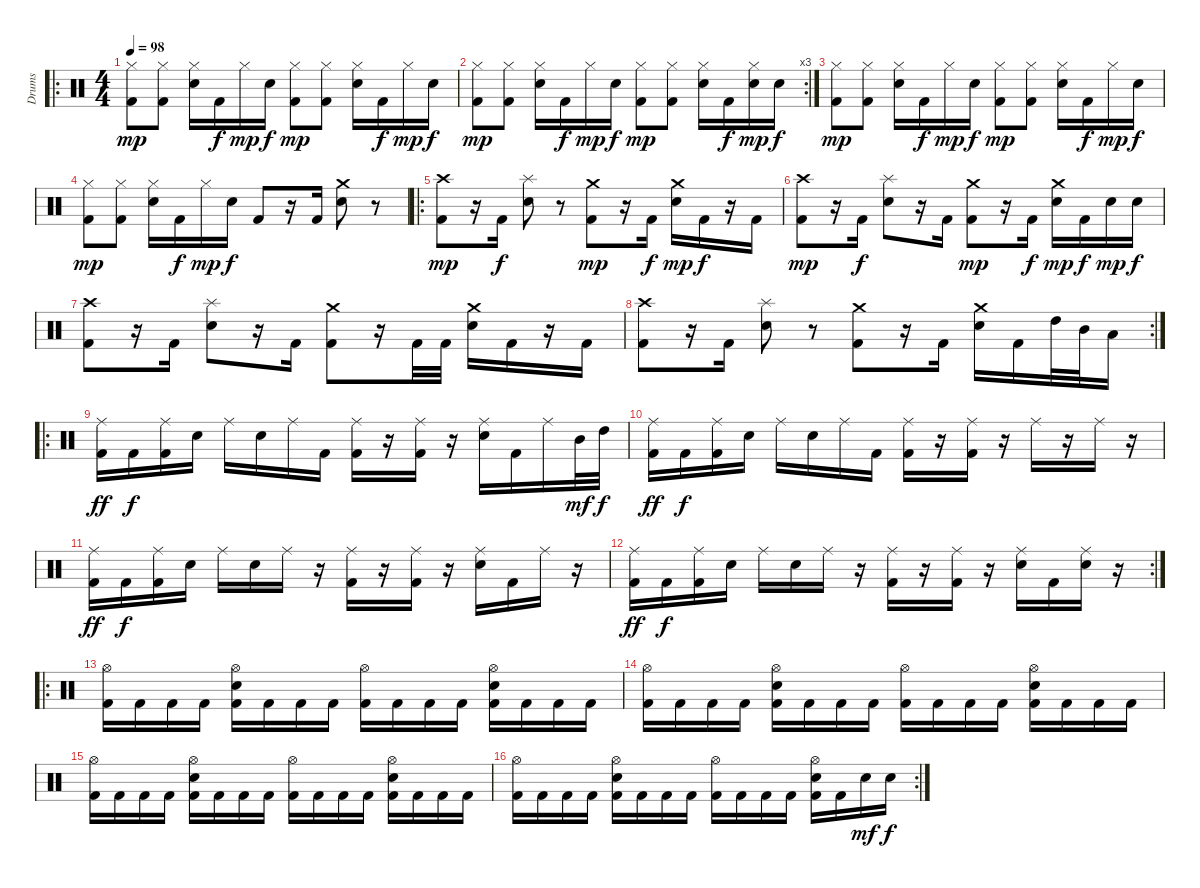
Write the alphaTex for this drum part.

\track ("Drums" "Drums") {instrument percussion}
\staff {score}
\articulation defaults
\ro
\ts (4 4)
\tempo 98
\clef neutral
\ks c
("Hi-Hat (closed)" "Kick (hit) 2").8{dy mp} ("Hi-Hat (closed)" "Kick (hit) 2").8 ("Hi-Hat (closed)" "Snare (hit) 2").16 "Kick (hit) 2".16{dy f} "Hi-Hat (closed)".16{dy mp} "Snare (hit) 2".16{dy f} ("Hi-Hat (closed)" "Kick (hit) 2").8{dy mp} ("Hi-Hat (closed)" "Kick (hit) 2").8 ("Hi-Hat (closed)" "Snare (hit) 2").16 "Kick (hit) 2".16{dy f} "Hi-Hat (closed)".16{dy mp} "Snare (hit) 2".16{dy f} |
\rc 3
("Hi-Hat (closed)" "Kick (hit) 2").8{dy mp} ("Hi-Hat (closed)" "Kick (hit) 2").8 ("Hi-Hat (closed)" "Snare (hit) 2").16 "Kick (hit) 2".16{dy f} "Hi-Hat (closed)".16{dy mp} "Snare (hit) 2".16{dy f} ("Hi-Hat (closed)" "Kick (hit) 2").8{dy mp} ("Hi-Hat (closed)" "Kick (hit) 2").8 ("Hi-Hat (closed)" "Snare (hit) 2").16 "Kick (hit) 2".16{dy f} ("Hi-Hat (closed)" "Snare (hit) 2").16{dy mp} "Snare (hit) 2".16{dy f} |
("Hi-Hat (closed)" "Kick (hit) 2").8{dy mp} ("Hi-Hat (closed)" "Kick (hit) 2").8 ("Hi-Hat (closed)" "Snare (hit) 2").16 "Kick (hit) 2".16{dy f} "Hi-Hat (closed)".16{dy mp} "Snare (hit) 2".16{dy f} ("Hi-Hat (closed)" "Kick (hit) 2").8{dy mp} ("Hi-Hat (closed)" "Kick (hit) 2").8 ("Hi-Hat (closed)" "Snare (hit) 2").16 "Kick (hit) 2".16{dy f} "Hi-Hat (closed)".16{dy mp} "Snare (hit) 2".16{dy f} |
("Hi-Hat (closed)" "Kick (hit) 2").8{dy mp} ("Hi-Hat (closed)" "Kick (hit) 2").8 ("Hi-Hat (closed)" "Snare (hit) 2").16 "Kick (hit) 2".16{dy f} "Hi-Hat (closed)".16{dy mp} "Snare (hit) 2".16{dy f} "Kick (hit) 2".8 r.16 "Kick (hit) 2".16 ("Crash medium (hit)" "Snare (hit) 2").8 r.8 |
\ro
("Crash high (hit)" "Kick (hit) 2").8{dy mp} r.16 "Kick (hit) 2".16{dy f} ("Splash (hit)" "Snare (hit) 2").8 r.8 ("Crash medium (hit)" "Kick (hit) 2").8{dy mp} r.16 "Kick (hit) 2".16{dy f} ("Crash medium (hit)" "Snare (hit) 2").16{dy mp} "Kick (hit) 2".16{dy f} r.16 "Kick (hit) 2".16 |
("Crash high (hit)" "Kick (hit) 2").8{dy mp} r.16 "Kick (hit) 2".16{dy f} ("Splash (hit)" "Snare (hit) 2").8 r.16 "Kick (hit) 2".16 ("Crash medium (hit)" "Kick (hit) 2").8{dy mp} r.16 "Kick (hit) 2".16{dy f} ("Crash medium (hit)" "Snare (hit) 2").16{dy mp} "Kick (hit) 2".16{dy f} "Snare (hit) 2".16{dy mp} "Snare (hit) 2".16{dy f} |
("Crash high (hit)" "Kick (hit) 2").8 r.16 "Kick (hit) 2".16 ("Splash (hit)" "Snare (hit) 2").8 r.16 "Kick (hit) 2".16 ("Crash medium (hit)" "Kick (hit) 2").8 r.16 "Kick (hit) 2".32 "Kick (hit) 2".32 ("Crash medium (hit)" "Snare (hit) 2").16 "Kick (hit) 2".16 r.16 "Kick (hit) 2".16 |
\rc 2
("Crash high (hit)" "Kick (hit) 2").8 r.16 "Kick (hit) 2".16 ("Splash (hit)" "Snare (hit) 2").8 r.8 ("Crash medium (hit)" "Kick (hit) 2").8 r.16 "Kick (hit) 2".16 ("Crash medium (hit)" "Snare (hit) 2").16 "Kick (hit) 2".16 "High Tom (hit)".32 "Mid Tom (hit)".32 "Low Tom (hit)".16 |
\ro
("Ride (middle)" "Kick (hit) 2").16{dy ff} "Kick (hit) 2".16{dy f} ("Ride (middle)" "Kick (hit) 2").16 "Snare (hit) 2".16 "Ride (middle)".16 "Snare (hit) 2".16 "Ride (middle)".16 "Kick (hit) 2".16 ("Ride (middle)" "Kick (hit) 2").16 r.16 ("Ride (middle)" "Kick (hit) 2").16 r.16 ("Ride (middle)" "Snare (hit) 2").16 "Kick (hit) 2".16 "Ride (middle)".16 "Mid Tom (hit)".32{dy mf} "High Tom (hit)".32{dy f} |
("Ride (middle)" "Kick (hit) 2").16{dy ff} "Kick (hit) 2".16{dy f} ("Ride (middle)" "Kick (hit) 2").16 "Snare (hit) 2".16 "Ride (middle)".16 "Snare (hit) 2".16 "Ride (middle)".16 "Kick (hit) 2".16 ("Ride (middle)" "Kick (hit) 2").16 r.16 ("Ride (middle)" "Kick (hit) 2").16 r.16 "Ride (middle)".16 r.16 "Ride (middle)".16 r.16 |
("Ride (middle)" "Kick (hit) 2").16{dy ff} "Kick (hit) 2".16{dy f} ("Ride (middle)" "Kick (hit) 2").16 "Snare (hit) 2".16 "Ride (middle)".16 "Snare (hit) 2".16 "Ride (middle)".16 r.16 ("Ride (middle)" "Kick (hit) 2").16 r.16 ("Ride (middle)" "Kick (hit) 2").16 r.16 ("Ride (middle)" "Snare (hit) 2").16 "Kick (hit) 2".16 "Ride (middle)".16 r.16 |
\rc 2
("Ride (middle)" "Kick (hit) 2").16{dy ff} "Kick (hit) 2".16{dy f} ("Ride (middle)" "Kick (hit) 2").16 "Snare (hit) 2".16 "Ride (middle)".16 "Snare (hit) 2".16 "Ride (middle)".16 r.16 ("Ride (middle)" "Kick (hit) 2").16 r.16 ("Ride (middle)" "Kick (hit) 2").16 r.16 ("Ride (middle)" "Snare (hit) 2").16 "Kick (hit) 2".16 ("Ride (middle)" "Snare (hit) 2").16 r.16 |
\ro
("Hi-Hat (open)" "Kick (hit) 2").16 "Kick (hit) 2".16 "Kick (hit) 2".16 "Kick (hit) 2".16 ("Hi-Hat (open)" "Snare (hit) 2" "Kick (hit) 2").16 "Kick (hit) 2".16 "Kick (hit) 2".16 "Kick (hit) 2".16 ("Hi-Hat (open)" "Kick (hit) 2").16 "Kick (hit) 2".16 "Kick (hit) 2".16 "Kick (hit) 2".16 ("Hi-Hat (open)" "Snare (hit) 2" "Kick (hit) 2").16 "Kick (hit) 2".16 "Kick (hit) 2".16 "Kick (hit) 2".16 |
("Hi-Hat (open)" "Kick (hit) 2").16 "Kick (hit) 2".16 "Kick (hit) 2".16 "Kick (hit) 2".16 ("Hi-Hat (open)" "Snare (hit) 2" "Kick (hit) 2").16 "Kick (hit) 2".16 "Kick (hit) 2".16 "Kick (hit) 2".16 ("Hi-Hat (open)" "Kick (hit) 2").16 "Kick (hit) 2".16 "Kick (hit) 2".16 "Kick (hit) 2".16 ("Hi-Hat (open)" "Snare (hit) 2" "Kick (hit) 2").16 "Kick (hit) 2".16 "Kick (hit) 2".16 "Kick (hit) 2".16 |
("Hi-Hat (open)" "Kick (hit) 2").16 "Kick (hit) 2".16 "Kick (hit) 2".16 "Kick (hit) 2".16 ("Hi-Hat (open)" "Snare (hit) 2" "Kick (hit) 2").16 "Kick (hit) 2".16 "Kick (hit) 2".16 "Kick (hit) 2".16 ("Hi-Hat (open)" "Kick (hit) 2").16 "Kick (hit) 2".16 "Kick (hit) 2".16 "Kick (hit) 2".16 ("Hi-Hat (open)" "Snare (hit) 2" "Kick (hit) 2").16 "Kick (hit) 2".16 "Kick (hit) 2".16 "Kick (hit) 2".16 |
\rc 2
("Hi-Hat (open)" "Kick (hit) 2").16 "Kick (hit) 2".16 "Kick (hit) 2".16 "Kick (hit) 2".16 ("Hi-Hat (open)" "Snare (hit) 2" "Kick (hit) 2").16 "Kick (hit) 2".16 "Kick (hit) 2".16 "Kick (hit) 2".16 ("Hi-Hat (open)" "Kick (hit) 2").16 "Kick (hit) 2".16 "Kick (hit) 2".16 "Kick (hit) 2".16 ("Hi-Hat (open)" "Snare (hit) 2" "Kick (hit) 2").16 "Kick (hit) 2".16 "Snare (hit) 2".16{dy mf} "Snare (hit) 2".16{dy f}
